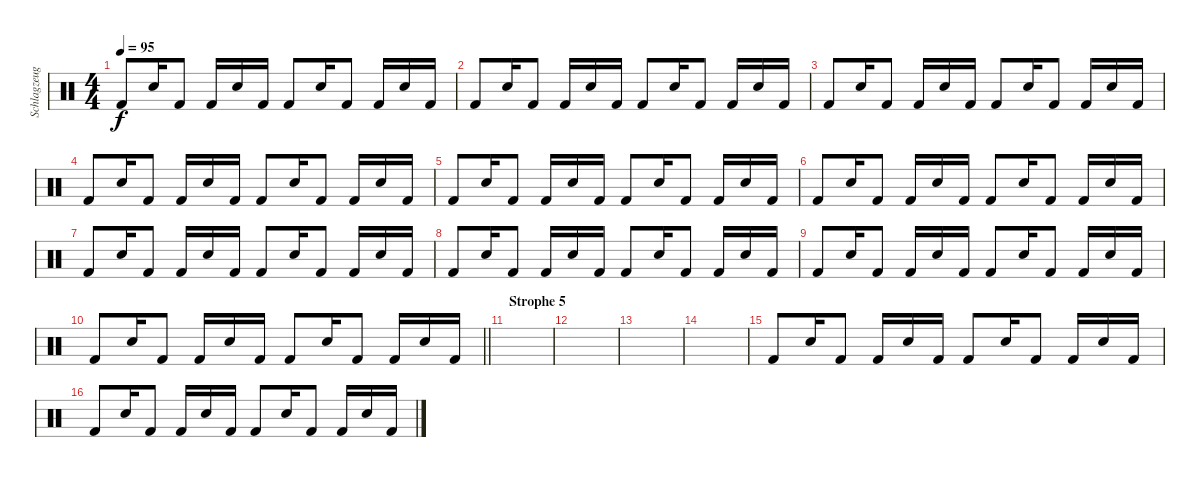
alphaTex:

\track ("Schlagzeug" "Schlagzeug") {instrument percussion}
\staff {score}
\articulation defaults
\ts (4 4)
\tempo 95
\clef neutral
\ks c "Kick (hit) 2".8{dy f} "Snare (hit) 2".16 "Kick (hit) 2".8 "Kick (hit) 2".16 "Snare (hit) 2".16 "Kick (hit) 2".16 "Kick (hit) 2".8 "Snare (hit) 2".16 "Kick (hit) 2".8 "Kick (hit) 2".16 "Snare (hit) 2".16 "Kick (hit) 2".16
|
"Kick (hit) 2".8 "Snare (hit) 2".16 "Kick (hit) 2".8 "Kick (hit) 2".16 "Snare (hit) 2".16 "Kick (hit) 2".16 "Kick (hit) 2".8 "Snare (hit) 2".16 "Kick (hit) 2".8 "Kick (hit) 2".16 "Snare (hit) 2".16 "Kick (hit) 2".16 |
"Kick (hit) 2".8 "Snare (hit) 2".16 "Kick (hit) 2".8 "Kick (hit) 2".16 "Snare (hit) 2".16 "Kick (hit) 2".16 "Kick (hit) 2".8 "Snare (hit) 2".16 "Kick (hit) 2".8 "Kick (hit) 2".16 "Snare (hit) 2".16 "Kick (hit) 2".16 |
"Kick (hit) 2".8 "Snare (hit) 2".16 "Kick (hit) 2".8 "Kick (hit) 2".16 "Snare (hit) 2".16 "Kick (hit) 2".16 "Kick (hit) 2".8 "Snare (hit) 2".16 "Kick (hit) 2".8 "Kick (hit) 2".16 "Snare (hit) 2".16 "Kick (hit) 2".16 |
"Kick (hit) 2".8 "Snare (hit) 2".16 "Kick (hit) 2".8 "Kick (hit) 2".16 "Snare (hit) 2".16 "Kick (hit) 2".16 "Kick (hit) 2".8 "Snare (hit) 2".16 "Kick (hit) 2".8 "Kick (hit) 2".16 "Snare (hit) 2".16 "Kick (hit) 2".16 |
"Kick (hit) 2".8 "Snare (hit) 2".16 "Kick (hit) 2".8 "Kick (hit) 2".16 "Snare (hit) 2".16 "Kick (hit) 2".16 "Kick (hit) 2".8 "Snare (hit) 2".16 "Kick (hit) 2".8 "Kick (hit) 2".16 "Snare (hit) 2".16 "Kick (hit) 2".16 |
"Kick (hit) 2".8 "Snare (hit) 2".16 "Kick (hit) 2".8 "Kick (hit) 2".16 "Snare (hit) 2".16 "Kick (hit) 2".16 "Kick (hit) 2".8 "Snare (hit) 2".16 "Kick (hit) 2".8 "Kick (hit) 2".16 "Snare (hit) 2".16 "Kick (hit) 2".16 |
"Kick (hit) 2".8 "Snare (hit) 2".16 "Kick (hit) 2".8 "Kick (hit) 2".16 "Snare (hit) 2".16 "Kick (hit) 2".16 "Kick (hit) 2".8 "Snare (hit) 2".16 "Kick (hit) 2".8 "Kick (hit) 2".16 "Snare (hit) 2".16 "Kick (hit) 2".16 |
"Kick (hit) 2".8 "Snare (hit) 2".16 "Kick (hit) 2".8 "Kick (hit) 2".16 "Snare (hit) 2".16 "Kick (hit) 2".16 "Kick (hit) 2".8 "Snare (hit) 2".16 "Kick (hit) 2".8 "Kick (hit) 2".16 "Snare (hit) 2".16 "Kick (hit) 2".16 |
\barLineRight lightlight "Kick (hit) 2".8 "Snare (hit) 2".16 "Kick (hit) 2".8 "Kick (hit) 2".16 "Snare (hit) 2".16 "Kick (hit) 2".16 "Kick (hit) 2".8 "Snare (hit) 2".16 "Kick (hit) 2".8 "Kick (hit) 2".16 "Snare (hit) 2".16 "Kick (hit) 2".16
|
\section ("" "Strophe 5")
|
|
|
|
"Kick (hit) 2".8 "Snare (hit) 2".16 "Kick (hit) 2".8 "Kick (hit) 2".16 "Snare (hit) 2".16 "Kick (hit) 2".16 "Kick (hit) 2".8 "Snare (hit) 2".16 "Kick (hit) 2".8 "Kick (hit) 2".16 "Snare (hit) 2".16 "Kick (hit) 2".16 |
"Kick (hit) 2".8 "Snare (hit) 2".16 "Kick (hit) 2".8 "Kick (hit) 2".16 "Snare (hit) 2".16 "Kick (hit) 2".16 "Kick (hit) 2".8 "Snare (hit) 2".16 "Kick (hit) 2".8 "Kick (hit) 2".16 "Snare (hit) 2".16 "Kick (hit) 2".16
